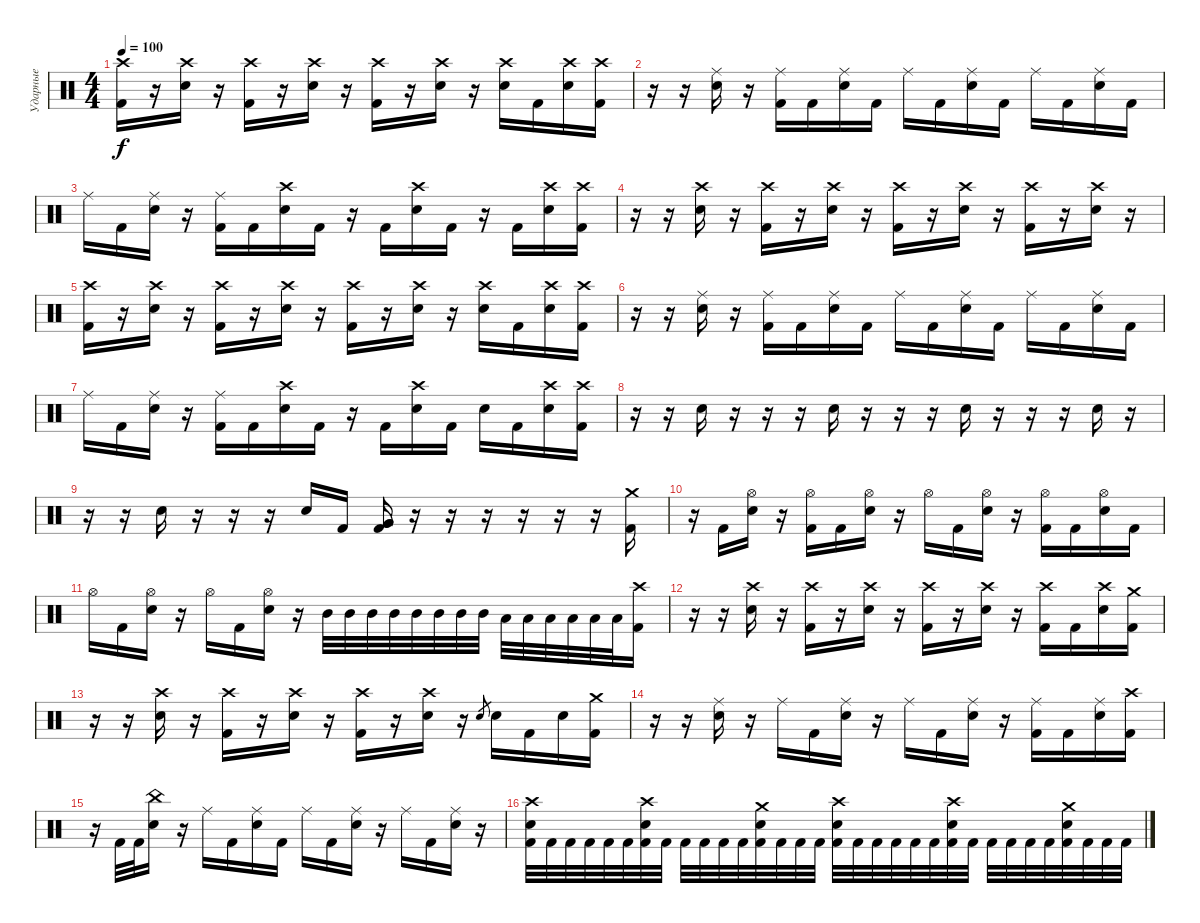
\track ("Ударные" "Ударные") {instrument percussion}
\staff {score}
\articulation defaults
\ts (4 4)
\tempo 100
\clef neutral
\ks c
("Crash high (hit)" "Kick (hit) 2").16{dy f} r.16 ("Crash high (hit)" "Electric Snare (hit)").16 r.16 ("Crash high (hit)" "Kick (hit) 2").16 r.16 ("Crash high (hit)" "Electric Snare (hit)").16 r.16 ("Crash high (hit)" "Kick (hit) 2").16 r.16 ("Crash high (hit)" "Electric Snare (hit)").16 r.16 ("Crash high (hit)" "Electric Snare (hit)").16 "Kick (hit) 2".16 ("Crash high (hit)" "Electric Snare (hit)").16 ("Crash high (hit)" "Kick (hit) 2").16 |
r.16 r.16 ("Ride (middle)" "Electric Snare (hit)").16 r.16 ("Ride (middle)" "Kick (hit) 2").16 "Kick (hit) 2".16 ("Ride (middle)" "Electric Snare (hit)").16 "Kick (hit) 2".16 "Ride (middle)".16 "Kick (hit) 2".16 ("Ride (middle)" "Electric Snare (hit)").16 "Kick (hit) 2".16 "Ride (middle)".16 "Kick (hit) 2".16 ("Ride (middle)" "Electric Snare (hit)").16 "Kick (hit) 2".16 |
"Ride (middle)".16 "Kick (hit) 2".16 ("Ride (middle)" "Electric Snare (hit)").16 r.16 ("Ride (middle)" "Kick (hit) 2").16 "Kick (hit) 2".16 ("Crash high (hit)" "Electric Snare (hit)").16 "Kick (hit) 2".16 r.16 "Kick (hit) 2".16 ("Crash high (hit)" "Electric Snare (hit)").16 "Kick (hit) 2".16 r.16 "Kick (hit) 2".16 ("Crash high (hit)" "Electric Snare (hit)").16 ("Crash high (hit)" "Kick (hit) 2").16 |
r.16 r.16 ("Crash high (hit)" "Electric Snare (hit)").16 r.16 ("Crash high (hit)" "Kick (hit) 2").16 r.16 ("Crash high (hit)" "Electric Snare (hit)").16 r.16 ("Crash high (hit)" "Kick (hit) 2").16 r.16 ("Crash high (hit)" "Electric Snare (hit)").16 r.16 ("Crash high (hit)" "Kick (hit) 2").16 r.16 ("Crash high (hit)" "Electric Snare (hit)").16 r.16 |
("Crash high (hit)" "Kick (hit) 2").16 r.16 ("Crash high (hit)" "Electric Snare (hit)").16 r.16 ("Crash high (hit)" "Kick (hit) 2").16 r.16 ("Crash high (hit)" "Electric Snare (hit)").16 r.16 ("Crash high (hit)" "Kick (hit) 2").16 r.16 ("Crash high (hit)" "Electric Snare (hit)").16 r.16 ("Crash high (hit)" "Electric Snare (hit)").16 "Kick (hit) 2".16 ("Crash high (hit)" "Electric Snare (hit)").16 ("Crash high (hit)" "Kick (hit) 2").16 |
r.16 r.16 ("Ride (middle)" "Electric Snare (hit)").16 r.16 ("Ride (middle)" "Kick (hit) 2").16 "Kick (hit) 2".16 ("Ride (middle)" "Electric Snare (hit)").16 "Kick (hit) 2".16 "Ride (middle)".16 "Kick (hit) 2".16 ("Ride (middle)" "Electric Snare (hit)").16 "Kick (hit) 2".16 "Ride (middle)".16 "Kick (hit) 2".16 ("Ride (middle)" "Electric Snare (hit)").16 "Kick (hit) 2".16 |
"Ride (middle)".16 "Kick (hit) 2".16 ("Ride (middle)" "Electric Snare (hit)").16 r.16 ("Ride (middle)" "Kick (hit) 2").16 "Kick (hit) 2".16 ("Crash high (hit)" "Electric Snare (hit)").16 "Kick (hit) 2".16 r.16 "Kick (hit) 2".16 ("Crash high (hit)" "Electric Snare (hit)").16 "Kick (hit) 2".16 "Electric Snare (hit)".16 "Kick (hit) 2".16 ("Crash high (hit)" "Electric Snare (hit)").16 ("Crash high (hit)" "Kick (hit) 2").16 |
r.16 r.16 "Electric Snare (hit)".16 r.16 r.16 r.16 "Electric Snare (hit)".16 r.16 r.16 r.16 "Electric Snare (hit)".16 r.16 r.16 r.16 "Electric Snare (hit)".16 r.16 |
r.16 r.16 "Electric Snare (hit)".16 r.16 r.16 r.16 "Electric Snare (hit)".16 "Kick (hit) 2".16 ("Very Low Tom (hit)" "Very Low Tom (hit)" "Kick (hit) 2").16 r.16 r.16 r.16 r.16 r.16 r.16 ("Crash medium (hit)" "Kick (hit) 2").16 |
r.16 "Kick (hit) 2".16 ("Hi-Hat (open)" "Electric Snare (hit)").16 r.16 ("Hi-Hat (open)" "Kick (hit) 2").16 "Kick (hit) 2".16 ("Hi-Hat (open)" "Electric Snare (hit)").16 r.16 "Hi-Hat (open)".16 "Kick (hit) 2".16 ("Hi-Hat (open)" "Electric Snare (hit)").16 r.16 ("Hi-Hat (open)" "Kick (hit) 2").16 "Kick (hit) 2".16 ("Hi-Hat (open)" "Electric Snare (hit)").16 "Kick (hit) 2".16 |
"Hi-Hat (open)".16 "Kick (hit) 2".16 ("Hi-Hat (open)" "Electric Snare (hit)").16 r.16 "Hi-Hat (open)".16 "Kick (hit) 2".16 ("Hi-Hat (open)" "Electric Snare (hit)").16 r.16 "Mid Tom (hit)".32 "Mid Tom (hit)".32 "Mid Tom (hit)".32 "Mid Tom (hit)".32 "Mid Tom (hit)".32 "Mid Tom (hit)".32 "Mid Tom (hit)".32 "Mid Tom (hit)".32 "Low Tom (hit)".32 "Low Tom (hit)".32 "Low Tom (hit)".32 "Low Tom (hit)".32 "Low Tom (hit)".32 "Low Tom (hit)".32 ("Crash high (hit)" "Kick (hit) 2").16 |
r.16 r.16 ("Crash high (hit)" "Electric Snare (hit)").16 r.16 ("Crash high (hit)" "Kick (hit) 2").16 r.16 ("Crash high (hit)" "Electric Snare (hit)").16 r.16 ("Crash high (hit)" "Kick (hit) 2").16 r.16 ("Crash high (hit)" "Electric Snare (hit)").16 r.16 ("Crash high (hit)" "Kick (hit) 2").16 "Kick (hit) 2".16 ("Crash high (hit)" "Electric Snare (hit)").16 ("Crash medium (hit)" "Kick (hit) 2").16 |
r.16 r.16 ("Crash high (hit)" "Electric Snare (hit)").16 r.16 ("Crash high (hit)" "Kick (hit) 2").16 r.16 ("Crash high (hit)" "Electric Snare (hit)").16 r.16 ("Crash high (hit)" "Kick (hit) 2").16 r.16 ("Crash high (hit)" "Electric Snare (hit)").16 r.16 "Electric Snare (hit)".8{gr} "Electric Snare (hit)".16 "Kick (hit) 2".16 "Electric Snare (hit)".16 ("Crash medium (hit)" "Kick (hit) 2").16 |
r.16 r.16 ("Ride (middle)" "Electric Snare (hit)").16 r.16 "Ride (middle)".16 "Kick (hit) 2".16 ("Ride (middle)" "Electric Snare (hit)").16 r.16 "Ride (middle)".16 "Kick (hit) 2".16 ("Ride (middle)" "Electric Snare (hit)").16 r.16 ("Ride (middle)" "Kick (hit) 2").16 "Kick (hit) 2".16 ("Ride (middle)" "Electric Snare (hit)").16 ("Crash high (hit)" "Kick (hit) 2").16 |
r.16 "Kick (hit) 2".32 "Kick (hit) 2".32 ("China (hit)" "Electric Snare (hit)").16 r.16 "Ride (middle)".16 "Kick (hit) 2".16 ("Ride (middle)" "Electric Snare (hit)").16 "Kick (hit) 2".16 "Ride (middle)".16 "Kick (hit) 2".16 ("Ride (middle)" "Electric Snare (hit)").16 r.16 "Ride (middle)".16 "Kick (hit) 2".16 ("Ride (middle)" "Electric Snare (hit)").16 r.16 |
("Crash high (hit)" "Electric Snare (hit)" "Kick (hit) 2").32 "Kick (hit) 2".32 "Kick (hit) 2".32 "Kick (hit) 2".32 "Kick (hit) 2".32 "Kick (hit) 2".32 ("Crash high (hit)" "Electric Snare (hit)" "Kick (hit) 2").32 "Kick (hit) 2".32 "Kick (hit) 2".32 "Kick (hit) 2".32 "Kick (hit) 2".32 "Kick (hit) 2".32 ("Crash medium (hit)" "Electric Snare (hit)" "Kick (hit) 2").32 "Kick (hit) 2".32 "Kick (hit) 2".32 "Kick (hit) 2".32 ("Crash high (hit)" "Electric Snare (hit)" "Kick (hit) 2").32 "Kick (hit) 2".32 "Kick (hit) 2".32 "Kick (hit) 2".32 "Kick (hit) 2".32 "Kick (hit) 2".32 ("Crash high (hit)" "Electric Snare (hit)" "Kick (hit) 2").32 "Kick (hit) 2".32 "Kick (hit) 2".32 "Kick (hit) 2".32 "Kick (hit) 2".32 "Kick (hit) 2".32 ("Crash medium (hit)" "Electric Snare (hit)" "Kick (hit) 2").32 "Kick (hit) 2".32 "Kick (hit) 2".32 "Kick (hit) 2".32
